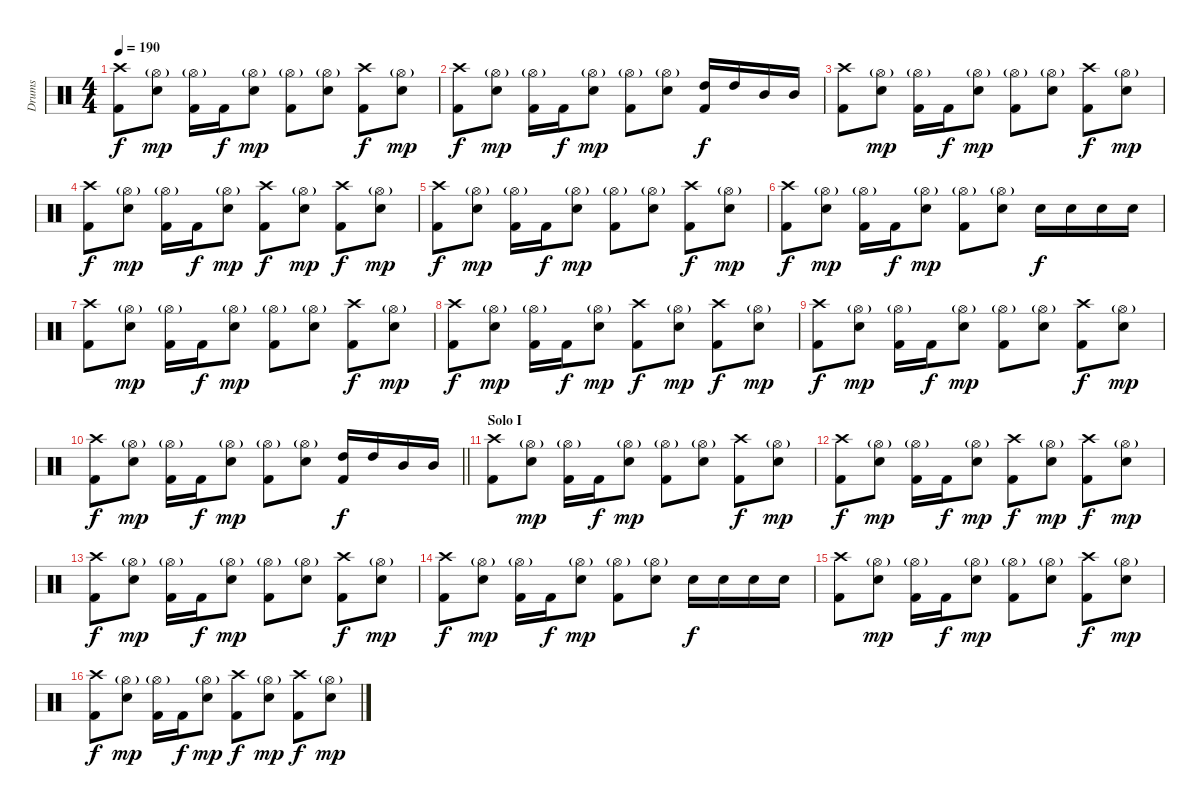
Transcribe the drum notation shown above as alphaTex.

\track ("Drums" "Drums") {instrument percussion}
\staff {score}
\articulation defaults
\ts (4 4)
\tempo 190
\clef neutral
\ks c
("Crash high (hit)" "Kick (hit) 2").8{dy f} ("Hi-Hat (open)"{g} "Electric Snare (hit)").8{dy mp} ("Hi-Hat (open)"{g} "Kick (hit) 2").16 "Kick (hit) 2".16{dy f} ("Hi-Hat (open)"{g} "Electric Snare (hit)").8{dy mp} ("Hi-Hat (open)"{g} "Kick (hit) 2").8 ("Hi-Hat (open)"{g} "Electric Snare (hit)").8 ("Crash high (hit)" "Kick (hit) 2").8{dy f} ("Hi-Hat (open)"{g} "Electric Snare (hit)").8{dy mp} |
("Crash high (hit)" "Kick (hit) 2").8{dy f} ("Hi-Hat (open)"{g} "Electric Snare (hit)").8{dy mp} ("Hi-Hat (open)"{g} "Kick (hit) 2").16 "Kick (hit) 2".16{dy f} ("Hi-Hat (open)"{g} "Electric Snare (hit)").8{dy mp} ("Hi-Hat (open)"{g} "Kick (hit) 2").8 ("Hi-Hat (open)"{g} "Electric Snare (hit)").8 ("High Tom (hit)" "Kick (hit) 2").16{dy f} "High Tom (hit)".16 "Mid Tom (hit)".16 "Mid Tom (hit)".16 |
("Crash high (hit)" "Kick (hit) 2").8 ("Hi-Hat (open)"{g} "Electric Snare (hit)").8{dy mp} ("Hi-Hat (open)"{g} "Kick (hit) 2").16 "Kick (hit) 2".16{dy f} ("Hi-Hat (open)"{g} "Electric Snare (hit)").8{dy mp} ("Hi-Hat (open)"{g} "Kick (hit) 2").8 ("Hi-Hat (open)"{g} "Electric Snare (hit)").8 ("Crash high (hit)" "Kick (hit) 2").8{dy f} ("Hi-Hat (open)"{g} "Electric Snare (hit)").8{dy mp} |
("Crash high (hit)" "Kick (hit) 2").8{dy f} ("Hi-Hat (open)"{g} "Electric Snare (hit)").8{dy mp} ("Hi-Hat (open)"{g} "Kick (hit) 2").16 "Kick (hit) 2".16{dy f} ("Hi-Hat (open)"{g} "Electric Snare (hit)").8{dy mp} ("Crash high (hit)" "Kick (hit) 2").8{dy f} ("Hi-Hat (open)"{g} "Electric Snare (hit)").8{dy mp} ("Crash high (hit)" "Kick (hit) 2").8{dy f} ("Hi-Hat (open)"{g} "Electric Snare (hit)").8{dy mp} |
("Crash high (hit)" "Kick (hit) 2").8{dy f} ("Hi-Hat (open)"{g} "Electric Snare (hit)").8{dy mp} ("Hi-Hat (open)"{g} "Kick (hit) 2").16 "Kick (hit) 2".16{dy f} ("Hi-Hat (open)"{g} "Electric Snare (hit)").8{dy mp} ("Hi-Hat (open)"{g} "Kick (hit) 2").8 ("Hi-Hat (open)"{g} "Electric Snare (hit)").8 ("Crash high (hit)" "Kick (hit) 2").8{dy f} ("Hi-Hat (open)"{g} "Electric Snare (hit)").8{dy mp} |
("Crash high (hit)" "Kick (hit) 2").8{dy f} ("Hi-Hat (open)"{g} "Electric Snare (hit)").8{dy mp} ("Hi-Hat (open)"{g} "Kick (hit) 2").16 "Kick (hit) 2".16{dy f} ("Hi-Hat (open)"{g} "Electric Snare (hit)").8{dy mp} ("Hi-Hat (open)"{g} "Kick (hit) 2").8 ("Hi-Hat (open)"{g} "Electric Snare (hit)").8 "Electric Snare (hit)".16{dy f} "Electric Snare (hit)".16 "Electric Snare (hit)".16 "Electric Snare (hit)".16 |
("Crash high (hit)" "Kick (hit) 2").8 ("Hi-Hat (open)"{g} "Electric Snare (hit)").8{dy mp} ("Hi-Hat (open)"{g} "Kick (hit) 2").16 "Kick (hit) 2".16{dy f} ("Hi-Hat (open)"{g} "Electric Snare (hit)").8{dy mp} ("Hi-Hat (open)"{g} "Kick (hit) 2").8 ("Hi-Hat (open)"{g} "Electric Snare (hit)").8 ("Crash high (hit)" "Kick (hit) 2").8{dy f} ("Hi-Hat (open)"{g} "Electric Snare (hit)").8{dy mp} |
("Crash high (hit)" "Kick (hit) 2").8{dy f} ("Hi-Hat (open)"{g} "Electric Snare (hit)").8{dy mp} ("Hi-Hat (open)"{g} "Kick (hit) 2").16 "Kick (hit) 2".16{dy f} ("Hi-Hat (open)"{g} "Electric Snare (hit)").8{dy mp} ("Crash high (hit)" "Kick (hit) 2").8{dy f} ("Hi-Hat (open)"{g} "Electric Snare (hit)").8{dy mp} ("Crash high (hit)" "Kick (hit) 2").8{dy f} ("Hi-Hat (open)"{g} "Electric Snare (hit)").8{dy mp} |
("Crash high (hit)" "Kick (hit) 2").8{dy f} ("Hi-Hat (open)"{g} "Electric Snare (hit)").8{dy mp} ("Hi-Hat (open)"{g} "Kick (hit) 2").16 "Kick (hit) 2".16{dy f} ("Hi-Hat (open)"{g} "Electric Snare (hit)").8{dy mp} ("Hi-Hat (open)"{g} "Kick (hit) 2").8 ("Hi-Hat (open)"{g} "Electric Snare (hit)").8 ("Crash high (hit)" "Kick (hit) 2").8{dy f} ("Hi-Hat (open)"{g} "Electric Snare (hit)").8{dy mp} |
\barLineRight lightlight
("Crash high (hit)" "Kick (hit) 2").8{dy f} ("Hi-Hat (open)"{g} "Electric Snare (hit)").8{dy mp} ("Hi-Hat (open)"{g} "Kick (hit) 2").16 "Kick (hit) 2".16{dy f} ("Hi-Hat (open)"{g} "Electric Snare (hit)").8{dy mp} ("Hi-Hat (open)"{g} "Kick (hit) 2").8 ("Hi-Hat (open)"{g} "Electric Snare (hit)").8 ("High Tom (hit)" "Kick (hit) 2").16{dy f} "High Tom (hit)".16 "Mid Tom (hit)".16 "Mid Tom (hit)".16 |
\section ("" "Solo I")
("Crash high (hit)" "Kick (hit) 2").8 ("Hi-Hat (open)"{g} "Electric Snare (hit)").8{dy mp} ("Hi-Hat (open)"{g} "Kick (hit) 2").16 "Kick (hit) 2".16{dy f} ("Hi-Hat (open)"{g} "Electric Snare (hit)").8{dy mp} ("Hi-Hat (open)"{g} "Kick (hit) 2").8 ("Hi-Hat (open)"{g} "Electric Snare (hit)").8 ("Crash high (hit)" "Kick (hit) 2").8{dy f} ("Hi-Hat (open)"{g} "Electric Snare (hit)").8{dy mp} |
("Crash high (hit)" "Kick (hit) 2").8{dy f} ("Hi-Hat (open)"{g} "Electric Snare (hit)").8{dy mp} ("Hi-Hat (open)"{g} "Kick (hit) 2").16 "Kick (hit) 2".16{dy f} ("Hi-Hat (open)"{g} "Electric Snare (hit)").8{dy mp} ("Crash high (hit)" "Kick (hit) 2").8{dy f} ("Hi-Hat (open)"{g} "Electric Snare (hit)").8{dy mp} ("Crash high (hit)" "Kick (hit) 2").8{dy f} ("Hi-Hat (open)"{g} "Electric Snare (hit)").8{dy mp} |
("Crash high (hit)" "Kick (hit) 2").8{dy f} ("Hi-Hat (open)"{g} "Electric Snare (hit)").8{dy mp} ("Hi-Hat (open)"{g} "Kick (hit) 2").16 "Kick (hit) 2".16{dy f} ("Hi-Hat (open)"{g} "Electric Snare (hit)").8{dy mp} ("Hi-Hat (open)"{g} "Kick (hit) 2").8 ("Hi-Hat (open)"{g} "Electric Snare (hit)").8 ("Crash high (hit)" "Kick (hit) 2").8{dy f} ("Hi-Hat (open)"{g} "Electric Snare (hit)").8{dy mp} |
("Crash high (hit)" "Kick (hit) 2").8{dy f} ("Hi-Hat (open)"{g} "Electric Snare (hit)").8{dy mp} ("Hi-Hat (open)"{g} "Kick (hit) 2").16 "Kick (hit) 2".16{dy f} ("Hi-Hat (open)"{g} "Electric Snare (hit)").8{dy mp} ("Hi-Hat (open)"{g} "Kick (hit) 2").8 ("Hi-Hat (open)"{g} "Electric Snare (hit)").8 "Electric Snare (hit)".16{dy f} "Electric Snare (hit)".16 "Electric Snare (hit)".16 "Electric Snare (hit)".16 |
("Crash high (hit)" "Kick (hit) 2").8 ("Hi-Hat (open)"{g} "Electric Snare (hit)").8{dy mp} ("Hi-Hat (open)"{g} "Kick (hit) 2").16 "Kick (hit) 2".16{dy f} ("Hi-Hat (open)"{g} "Electric Snare (hit)").8{dy mp} ("Hi-Hat (open)"{g} "Kick (hit) 2").8 ("Hi-Hat (open)"{g} "Electric Snare (hit)").8 ("Crash high (hit)" "Kick (hit) 2").8{dy f} ("Hi-Hat (open)"{g} "Electric Snare (hit)").8{dy mp} |
("Crash high (hit)" "Kick (hit) 2").8{dy f} ("Hi-Hat (open)"{g} "Electric Snare (hit)").8{dy mp} ("Hi-Hat (open)"{g} "Kick (hit) 2").16 "Kick (hit) 2".16{dy f} ("Hi-Hat (open)"{g} "Electric Snare (hit)").8{dy mp} ("Crash high (hit)" "Kick (hit) 2").8{dy f} ("Hi-Hat (open)"{g} "Electric Snare (hit)").8{dy mp} ("Crash high (hit)" "Kick (hit) 2").8{dy f} ("Hi-Hat (open)"{g} "Electric Snare (hit)").8{dy mp}
